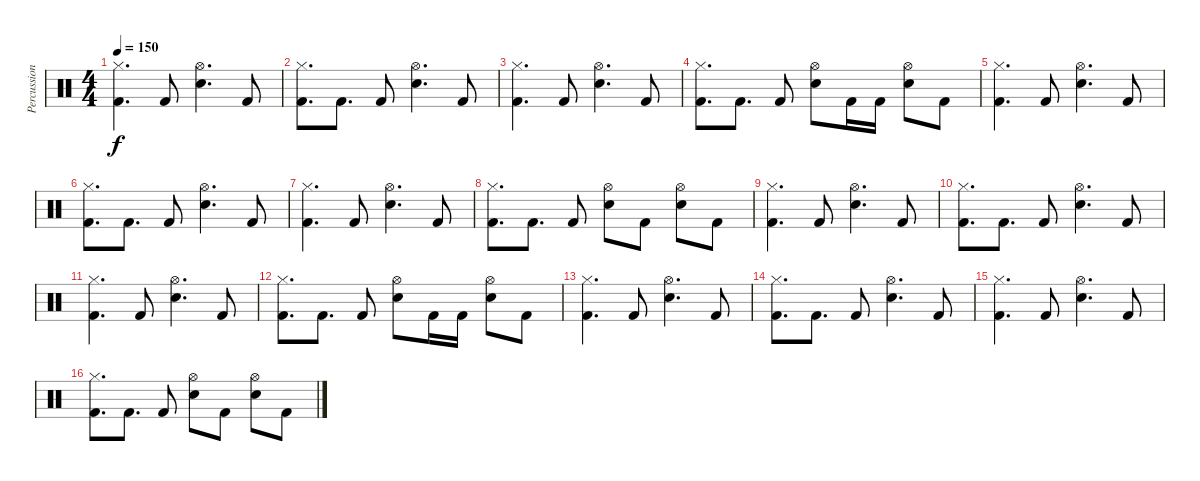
\track ("Percussions" "Percussion") {instrument percussion}
\staff {score}
\articulation defaults
\ts (4 4)
\tempo 150
\clef neutral
\ks c
("Hi-Hat (closed)" "Kick (hit) 2").4{d dy f} "Kick (hit) 2".8 ("Hi-Hat (open)" "Snare (hit) 2").4{d} "Kick (hit) 2".8 |
("Hi-Hat (closed)" "Kick (hit) 2").8{d} "Kick (hit) 2".8{d} "Kick (hit) 2".8 ("Hi-Hat (open)" "Snare (hit) 2").4{d} "Kick (hit) 2".8 |
("Hi-Hat (closed)" "Kick (hit) 2").4{d} "Kick (hit) 2".8 ("Hi-Hat (open)" "Snare (hit) 2").4{d} "Kick (hit) 2".8 |
("Hi-Hat (closed)" "Kick (hit) 2").8{d} "Kick (hit) 2".8{d} "Kick (hit) 2".8 ("Hi-Hat (open)" "Snare (hit) 2").8 "Kick (hit) 2".16 "Kick (hit) 2".16 ("Hi-Hat (open)" "Snare (hit) 2").8 "Kick (hit) 2".8 |
("Hi-Hat (closed)" "Kick (hit) 2").4{d} "Kick (hit) 2".8 ("Hi-Hat (open)" "Snare (hit) 2").4{d} "Kick (hit) 2".8 |
("Hi-Hat (closed)" "Kick (hit) 2").8{d} "Kick (hit) 2".8{d} "Kick (hit) 2".8 ("Hi-Hat (open)" "Snare (hit) 2").4{d} "Kick (hit) 2".8 |
("Hi-Hat (closed)" "Kick (hit) 2").4{d} "Kick (hit) 2".8 ("Hi-Hat (open)" "Snare (hit) 2").4{d} "Kick (hit) 2".8 |
("Hi-Hat (closed)" "Kick (hit) 2").8{d} "Kick (hit) 2".8{d} "Kick (hit) 2".8 ("Hi-Hat (open)" "Snare (hit) 2").8 "Kick (hit) 2".8 ("Hi-Hat (open)" "Snare (hit) 2").8 "Kick (hit) 2".8 |
("Hi-Hat (closed)" "Kick (hit) 2").4{d} "Kick (hit) 2".8 ("Hi-Hat (open)" "Snare (hit) 2").4{d} "Kick (hit) 2".8 |
("Hi-Hat (closed)" "Kick (hit) 2").8{d} "Kick (hit) 2".8{d} "Kick (hit) 2".8 ("Hi-Hat (open)" "Snare (hit) 2").4{d} "Kick (hit) 2".8 |
("Hi-Hat (closed)" "Kick (hit) 2").4{d} "Kick (hit) 2".8 ("Hi-Hat (open)" "Snare (hit) 2").4{d} "Kick (hit) 2".8 |
("Hi-Hat (closed)" "Kick (hit) 2").8{d} "Kick (hit) 2".8{d} "Kick (hit) 2".8 ("Hi-Hat (open)" "Snare (hit) 2").8 "Kick (hit) 2".16 "Kick (hit) 2".16 ("Hi-Hat (open)" "Snare (hit) 2").8 "Kick (hit) 2".8 |
("Hi-Hat (closed)" "Kick (hit) 2").4{d} "Kick (hit) 2".8 ("Hi-Hat (open)" "Snare (hit) 2").4{d} "Kick (hit) 2".8 |
("Hi-Hat (closed)" "Kick (hit) 2").8{d} "Kick (hit) 2".8{d} "Kick (hit) 2".8 ("Hi-Hat (open)" "Snare (hit) 2").4{d} "Kick (hit) 2".8 |
("Hi-Hat (closed)" "Kick (hit) 2").4{d} "Kick (hit) 2".8 ("Hi-Hat (open)" "Snare (hit) 2").4{d} "Kick (hit) 2".8 |
("Hi-Hat (closed)" "Kick (hit) 2").8{d} "Kick (hit) 2".8{d} "Kick (hit) 2".8 ("Hi-Hat (open)" "Snare (hit) 2").8 "Kick (hit) 2".8 ("Hi-Hat (open)" "Snare (hit) 2").8 "Kick (hit) 2".8
